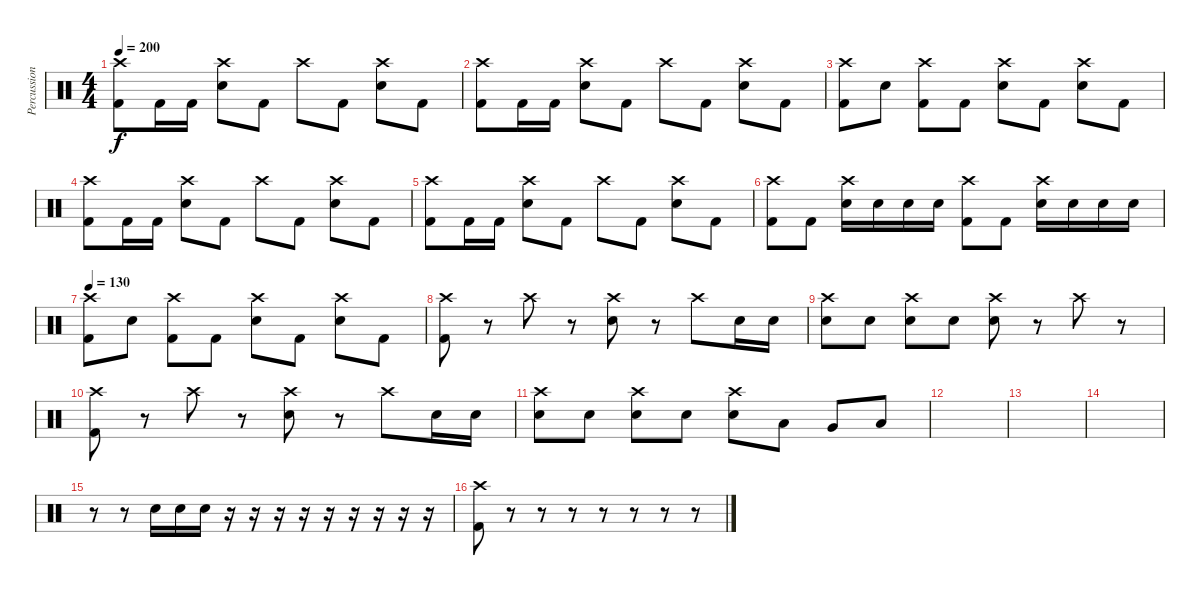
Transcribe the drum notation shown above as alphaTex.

\track ("Percussion" "Percussion") {instrument percussion}
\staff {score}
\articulation defaults
\ts (4 4)
\tempo 200
\clef neutral
\ks c
("Crash high (hit)" "Kick (hit) 2").8{dy f} "Kick (hit) 2".16 "Kick (hit) 2".16 ("Crash high (hit)" "Snare (hit) 2").8 "Kick (hit) 2".8 "Crash high (hit)".8 "Kick (hit) 2".8 ("Crash high (hit)" "Snare (hit) 2").8 "Kick (hit) 2".8 |
("Crash high (hit)" "Kick (hit) 2").8 "Kick (hit) 2".16 "Kick (hit) 2".16 ("Crash high (hit)" "Snare (hit) 2").8 "Kick (hit) 2".8 "Crash high (hit)".8 "Kick (hit) 2".8 ("Crash high (hit)" "Snare (hit) 2").8 "Kick (hit) 2".8 |
("Crash high (hit)" "Kick (hit) 2").8 "Snare (hit) 2".8 ("Crash high (hit)" "Kick (hit) 2").8 "Kick (hit) 2".8 ("Crash high (hit)" "Snare (hit) 2").8 "Kick (hit) 2".8 ("Crash high (hit)" "Snare (hit) 2").8 "Kick (hit) 2".8 |
("Crash high (hit)" "Kick (hit) 2").8 "Kick (hit) 2".16 "Kick (hit) 2".16 ("Crash high (hit)" "Snare (hit) 2").8 "Kick (hit) 2".8 "Crash high (hit)".8 "Kick (hit) 2".8 ("Crash high (hit)" "Snare (hit) 2").8 "Kick (hit) 2".8 |
("Crash high (hit)" "Kick (hit) 2").8 "Kick (hit) 2".16 "Kick (hit) 2".16 ("Crash high (hit)" "Snare (hit) 2").8 "Kick (hit) 2".8 "Crash high (hit)".8 "Kick (hit) 2".8 ("Crash high (hit)" "Snare (hit) 2").8 "Kick (hit) 2".8 |
("Crash high (hit)" "Kick (hit) 2").8 "Kick (hit) 2".8 ("Crash high (hit)" "Snare (hit) 2").16 "Snare (hit) 2".16 "Snare (hit) 2".16 "Snare (hit) 2".16 ("Crash high (hit)" "Kick (hit) 2").8 "Kick (hit) 2".8 ("Crash high (hit)" "Snare (hit) 2").16 "Snare (hit) 2".16 "Snare (hit) 2".16 "Snare (hit) 2".16 |
\tempo 130
("Crash high (hit)" "Kick (hit) 2").8 "Snare (hit) 2".8 ("Crash high (hit)" "Kick (hit) 2").8 "Kick (hit) 2".8 ("Crash high (hit)" "Snare (hit) 2").8 "Kick (hit) 2".8 ("Crash high (hit)" "Snare (hit) 2").8 "Kick (hit) 2".8 |
("Crash high (hit)" "Kick (hit) 2").8 r.8 "Crash high (hit)".8 r.8 ("Crash high (hit)" "Snare (hit) 2").8 r.8 "Crash high (hit)".8 "Snare (hit) 2".16 "Snare (hit) 2".16 |
("Crash high (hit)" "Snare (hit) 2").8 "Snare (hit) 2".8 ("Crash high (hit)" "Snare (hit) 2").8 "Snare (hit) 2".8 ("Crash high (hit)" "Snare (hit) 2").8 r.8 "Crash high (hit)".8 r.8 |
("Crash high (hit)" "Kick (hit) 2").8 r.8 "Crash high (hit)".8 r.8 ("Crash high (hit)" "Snare (hit) 2").8 r.8 "Crash high (hit)".8 "Snare (hit) 2".16 "Snare (hit) 2".16 |
("Crash high (hit)" "Snare (hit) 2").8 "Snare (hit) 2".8 ("Crash high (hit)" "Snare (hit) 2").8 "Snare (hit) 2".8 ("Crash high (hit)" "Snare (hit) 2").8 "Low Tom (hit)".8 "Very Low Tom (hit)".8 "Low Floor Tom (hit)".8 |
|
|
|
r.8 r.8 "Snare (hit) 2".16 "Snare (hit) 2".16 "Snare (hit) 2".16 r.16 r.16 r.16 r.16 r.16 r.16 r.16 r.16 r.16 |
("Crash high (hit)" "Kick (hit) 2").8 r.8 r.8 r.8 r.8 r.8 r.8 r.8
